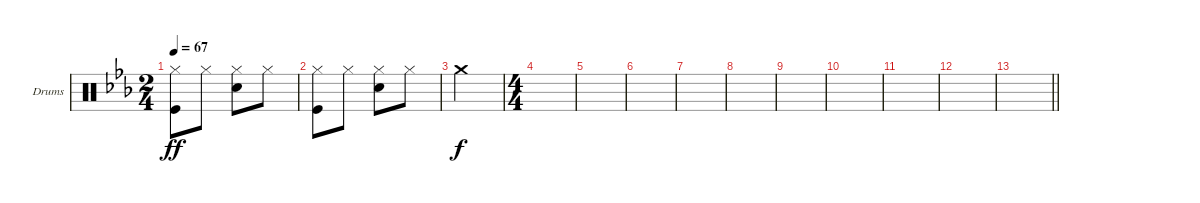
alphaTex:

\defaultSystemsLayout 4
\bracketExtendMode groupsimilarinstruments
\firstSystemTrackNameOrientation horizontal
\otherSystemsTrackNameOrientation horizontal
\track ("Drumkit" "Drums") {instrument percussion}
\staff {score}
\articulation defaults
\ts (2 4)
\tempo 67
\clef neutral
\ks cminor
("Hi-Hat (closed)" "Kick (hit)").8{dy ff} "Hi-Hat (closed)".8 ("Hi-Hat (closed)" "Snare (hit) 2").8 "Hi-Hat (closed)".8 |
("Hi-Hat (closed)" "Kick (hit)").8 "Hi-Hat (closed)".8 ("Hi-Hat (closed)" "Snare (hit) 2").8 "Hi-Hat (closed)".8 |
"Crash medium (hit)".2{dy f} |
\ts (4 4)
|
|
|
|
|
|
|
|
|
\barLineRight lightlight
